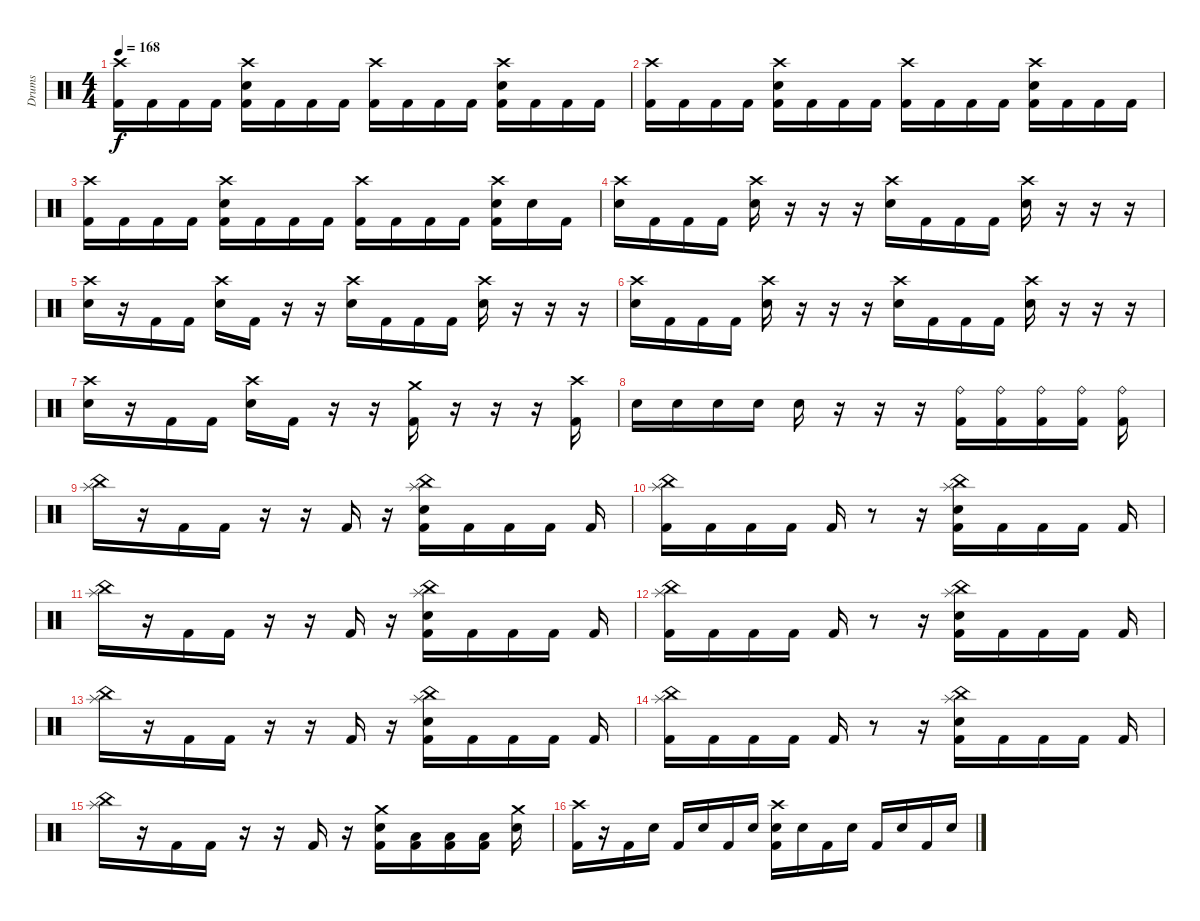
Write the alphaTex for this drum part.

\track ("Drums" "Drums") {instrument percussion}
\staff {score}
\articulation defaults
\ts (4 4)
\tempo 168
\clef neutral
\ks c
("Crash high (hit)" "Kick (hit) 2").16{dy f} "Kick (hit) 2".16 "Kick (hit) 2".16 "Kick (hit) 2".16 ("Crash high (hit)" "Electric Snare (hit)" "Kick (hit) 2").16 "Kick (hit) 2".16 "Kick (hit) 2".16 "Kick (hit) 2".16 ("Crash high (hit)" "Kick (hit) 2").16 "Kick (hit) 2".16 "Kick (hit) 2".16 "Kick (hit) 2".16 ("Crash high (hit)" "Electric Snare (hit)" "Kick (hit) 2").16 "Kick (hit) 2".16 "Kick (hit) 2".16 "Kick (hit) 2".16 |
("Crash high (hit)" "Kick (hit) 2").16 "Kick (hit) 2".16 "Kick (hit) 2".16 "Kick (hit) 2".16 ("Crash high (hit)" "Electric Snare (hit)" "Kick (hit) 2").16 "Kick (hit) 2".16 "Kick (hit) 2".16 "Kick (hit) 2".16 ("Crash high (hit)" "Kick (hit) 2").16 "Kick (hit) 2".16 "Kick (hit) 2".16 "Kick (hit) 2".16 ("Crash high (hit)" "Electric Snare (hit)" "Kick (hit) 2").16 "Kick (hit) 2".16 "Kick (hit) 2".16 "Kick (hit) 2".16 |
("Crash high (hit)" "Kick (hit) 2").16 "Kick (hit) 2".16 "Kick (hit) 2".16 "Kick (hit) 2".16 ("Crash high (hit)" "Electric Snare (hit)" "Kick (hit) 2").16 "Kick (hit) 2".16 "Kick (hit) 2".16 "Kick (hit) 2".16 ("Crash high (hit)" "Kick (hit) 2").16 "Kick (hit) 2".16 "Kick (hit) 2".16 "Kick (hit) 2".16 ("Crash high (hit)" "Electric Snare (hit)" "Kick (hit) 2").16 "Snare (hit)".16 "Kick (hit) 2".16 |
("Crash high (hit)" "Snare (hit) 2").16 "Kick (hit) 2".16 "Kick (hit) 2".16 "Kick (hit) 2".16 ("Crash high (hit)" "Snare (hit) 2").16 r.16 r.16 r.16 ("Crash high (hit)" "Snare (hit) 2").16 "Kick (hit) 2".16 "Kick (hit) 2".16 "Kick (hit) 2".16 ("Crash high (hit)" "Snare (hit) 2").16 r.16 r.16 r.16 |
("Crash high (hit)" "Snare (hit) 2").16 r.16 "Kick (hit) 2".16 "Kick (hit) 2".16 ("Crash high (hit)" "Snare (hit) 2").16 "Kick (hit) 2".16 r.16 r.16 ("Crash high (hit)" "Snare (hit) 2").16 "Kick (hit) 2".16 "Kick (hit) 2".16 "Kick (hit) 2".16 ("Crash high (hit)" "Snare (hit) 2").16 r.16 r.16 r.16 |
("Crash high (hit)" "Snare (hit) 2").16 "Kick (hit) 2".16 "Kick (hit) 2".16 "Kick (hit) 2".16 ("Crash high (hit)" "Snare (hit) 2").16 r.16 r.16 r.16 ("Crash high (hit)" "Snare (hit) 2").16 "Kick (hit) 2".16 "Kick (hit) 2".16 "Kick (hit) 2".16 ("Crash high (hit)" "Snare (hit) 2").16 r.16 r.16 r.16 |
("Crash high (hit)" "Snare (hit) 2").16 r.16 "Kick (hit) 2".16 "Kick (hit) 2".16 ("Crash high (hit)" "Snare (hit) 2").16 "Kick (hit) 2".16 r.16 r.16 ("Crash medium (hit)" "Kick (hit) 2").16 r.16 r.16 r.16 ("Crash high (hit)" "Kick (hit) 2").16 |
"Snare (hit) 2".16 "Snare (hit) 2".16 "Snare (hit) 2".16 "Snare (hit) 2".16 "Snare (hit) 2".16 r.16 r.16 r.16 ("Ride (bell)" "Kick (hit) 2").16 ("Ride (bell)" "Kick (hit) 2").16 ("Ride (bell)" "Kick (hit) 2").16 ("Ride (bell)" "Kick (hit) 2").16 ("Ride (bell)" "Kick (hit) 2").16 |
("Splash (hit)" "China (hit)").16 r.16 "Kick (hit) 2".16 "Kick (hit) 2".16 r.16 r.16 "Kick (hit) 2".16 r.16 ("China (hit)" "Splash (hit)" "Electric Snare (hit)" "Kick (hit) 2").16 "Kick (hit) 2".16 "Kick (hit) 2".16 "Kick (hit) 2".16 "Kick (hit) 2".16 |
("Splash (hit)" "China (hit)" "Kick (hit) 2").16 "Kick (hit) 2".16 "Kick (hit) 2".16 "Kick (hit) 2".16 "Kick (hit) 2".16 r.8 r.16 ("Splash (hit)" "China (hit)" "Electric Snare (hit)" "Kick (hit) 2").16 "Kick (hit) 2".16 "Kick (hit) 2".16 "Kick (hit) 2".16 "Kick (hit) 2".16 |
("Splash (hit)" "China (hit)").16 r.16 "Kick (hit) 2".16 "Kick (hit) 2".16 r.16 r.16 "Kick (hit) 2".16 r.16 ("China (hit)" "Splash (hit)" "Electric Snare (hit)" "Kick (hit) 2").16 "Kick (hit) 2".16 "Kick (hit) 2".16 "Kick (hit) 2".16 "Kick (hit) 2".16 |
("Splash (hit)" "China (hit)" "Kick (hit) 2").16 "Kick (hit) 2".16 "Kick (hit) 2".16 "Kick (hit) 2".16 "Kick (hit) 2".16 r.8 r.16 ("Splash (hit)" "China (hit)" "Electric Snare (hit)" "Kick (hit) 2").16 "Kick (hit) 2".16 "Kick (hit) 2".16 "Kick (hit) 2".16 "Kick (hit) 2".16 |
("Splash (hit)" "China (hit)").16 r.16 "Kick (hit) 2".16 "Kick (hit) 2".16 r.16 r.16 "Kick (hit) 2".16 r.16 ("China (hit)" "Splash (hit)" "Electric Snare (hit)" "Kick (hit) 2").16 "Kick (hit) 2".16 "Kick (hit) 2".16 "Kick (hit) 2".16 "Kick (hit) 2".16 |
("Splash (hit)" "China (hit)" "Kick (hit) 2").16 "Kick (hit) 2".16 "Kick (hit) 2".16 "Kick (hit) 2".16 "Kick (hit) 2".16 r.8 r.16 ("Splash (hit)" "China (hit)" "Electric Snare (hit)" "Kick (hit) 2").16 "Kick (hit) 2".16 "Kick (hit) 2".16 "Kick (hit) 2".16 "Kick (hit) 2".16 |
("Splash (hit)" "China (hit)").16 r.16 "Kick (hit) 2".16 "Kick (hit) 2".16 r.16 r.16 "Kick (hit) 2".16 r.16 ("Crash medium (hit)" "Electric Snare (hit)" "Kick (hit) 2").16 ("Low Tom (hit)" "Kick (hit) 2").16 ("Low Tom (hit)" "Kick (hit) 2").16 ("Low Tom (hit)" "Kick (hit) 2").16 ("Crash medium (hit)" "Electric Snare (hit)").16 |
("Crash high (hit)" "Kick (hit) 2").16 r.16 "Kick (hit) 2".16 "Snare (hit)".16 "Kick (hit) 2".16 "Snare (hit)".16 "Kick (hit) 2".16 "Snare (hit)".16 ("Crash high (hit)" "Electric Snare (hit)" "Kick (hit) 2").16 "Snare (hit)".16 "Kick (hit) 2".16 "Snare (hit)".16 "Kick (hit) 2".16 "Snare (hit)".16 "Kick (hit) 2".16 "Snare (hit)".16
